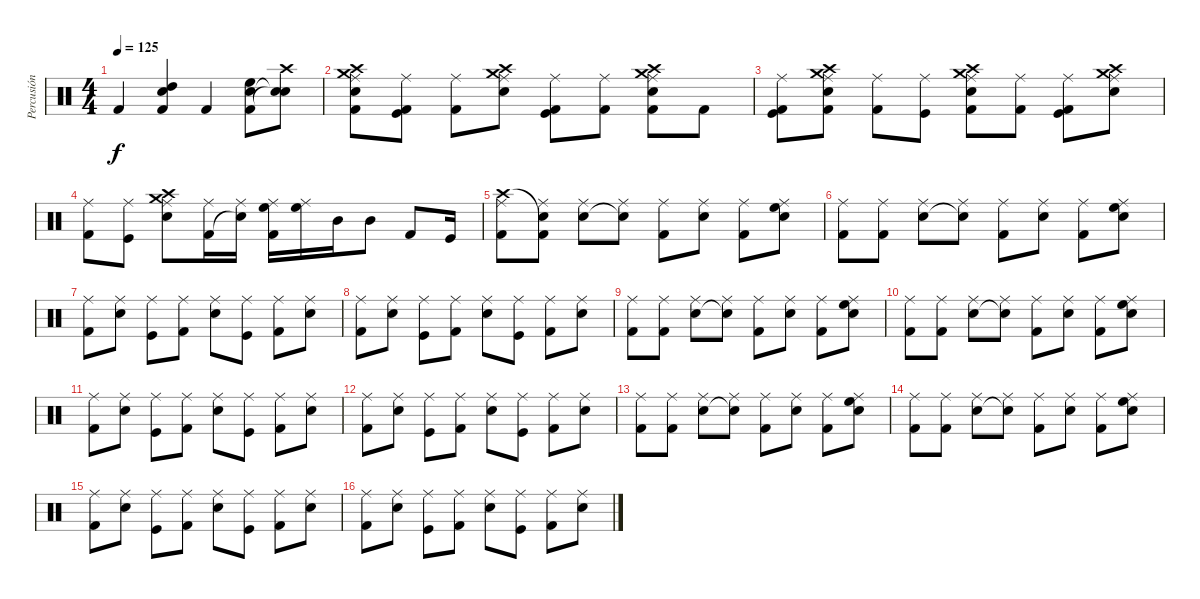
\track ("Percusión" "Percusión") {instrument percussion}
\staff {score}
\articulation defaults
\ts (4 4)
\tempo 125
\clef neutral
\ks c "Kick (hit) 2".4{dy f}
("High Tom (hit)" "Electric Snare (hit)" "Kick (hit) 2").4 "Kick (hit) 2".4 ("High Floor Tom (hit)" "Electric Snare (hit)" "Kick (hit) 2").8 ("Crash high (hit)" "Snare (hit)"{t} "Snare (hit)"{t}).8 |
("Ride (middle)" "Crash medium (hit)" "Snare (hit) 2" "Kick (hit) 2" "Crash high (hit)").8 ("Ride (middle)" "Kick (hit)" "Kick (hit) 2").8 ("Ride (middle)" "Kick (hit) 2").8 ("Ride (middle)" "Crash medium (hit)" "Snare (hit) 2" "Crash high (hit)").8 ("Ride (middle)" "Kick (hit)" "Kick (hit) 2").8 ("Ride (middle)" "Kick (hit) 2").8 ("Ride (middle)" "Crash medium (hit)" "Snare (hit) 2" "Kick (hit) 2" "Crash high (hit)").8 "Kick (hit) 2".8 |
("Ride (middle)" "Kick (hit)" "Kick (hit) 2").8 ("Ride (middle)" "Crash medium (hit)" "Snare (hit) 2" "Kick (hit) 2" "Crash high (hit)").8 ("Ride (middle)" "Kick (hit) 2").8 ("Ride (middle)" "Kick (hit)").8 ("Ride (middle)" "Crash medium (hit)" "Snare (hit) 2" "Kick (hit) 2" "Crash high (hit)").8 ("Ride (middle)" "Kick (hit) 2").8 ("Ride (middle)" "Kick (hit)" "Kick (hit) 2").8 ("Ride (middle)" "Crash medium (hit)" "Snare (hit) 2" "Crash high (hit)").8 |
("Ride (middle)" "Kick (hit) 2").8 ("Ride (middle)" "Kick (hit)").8 ("Ride (middle)" "Crash medium (hit)" "Snare (hit) 2" "Crash high (hit)").8 ("Ride (middle)" "Kick (hit) 2").16 ("Ride (middle)" "Snare (hit)"{t}).16 ("Ride (middle)" "High Floor Tom (hit)" "Kick (hit) 2").16 ("Ride (middle)" "High Floor Tom (hit)").16 "Mid Tom (hit)".16 "Mid Tom (hit)".8 "Kick (hit) 2".8 "Kick (hit)".16 |
("Crash high (hit)" "Ride (middle)" "Kick (hit) 2").8 ("Snare (hit)"{t} "Ride (middle)" "Kick (hit) 2").8 ("Ride (middle)" "Snare (hit) 2").8 ("Ride (middle)" "Snare (hit) 2"{t}).8 ("Ride (middle)" "Kick (hit) 2").8 ("Ride (middle)" "Snare (hit) 2").8 ("Ride (middle)" "Kick (hit) 2").8 ("Ride (middle)" "High Floor Tom (hit)" "Snare (hit) 2").8 |
("Ride (middle)" "Kick (hit) 2").8 ("Ride (middle)" "Kick (hit) 2").8 ("Ride (middle)" "Snare (hit) 2").8 ("Ride (middle)" "Snare (hit) 2"{t}).8 ("Ride (middle)" "Kick (hit) 2").8 ("Ride (middle)" "Snare (hit) 2").8 ("Ride (middle)" "Kick (hit) 2").8 ("Ride (middle)" "High Floor Tom (hit)" "Snare (hit) 2").8 |
("Ride (middle)" "Kick (hit) 2").8 ("Ride (middle)" "Snare (hit) 2").8 ("Ride (middle)" "Kick (hit)").8 ("Ride (middle)" "Kick (hit) 2").8 ("Ride (middle)" "Snare (hit) 2").8 ("Ride (middle)" "Kick (hit)").8 ("Ride (middle)" "Kick (hit) 2").8 ("Ride (middle)" "Snare (hit) 2").8 |
("Ride (middle)" "Kick (hit) 2").8 ("Ride (middle)" "Snare (hit) 2").8 ("Ride (middle)" "Kick (hit)").8 ("Ride (middle)" "Kick (hit) 2").8 ("Ride (middle)" "Snare (hit) 2").8 ("Ride (middle)" "Kick (hit)").8 ("Ride (middle)" "Kick (hit) 2").8 ("Ride (middle)" "Snare (hit) 2").8 |
("Ride (middle)" "Kick (hit) 2").8 ("Ride (middle)" "Kick (hit) 2").8 ("Ride (middle)" "Snare (hit) 2").8 ("Ride (middle)" "Snare (hit) 2"{t}).8 ("Ride (middle)" "Kick (hit) 2").8 ("Ride (middle)" "Snare (hit) 2").8 ("Ride (middle)" "Kick (hit) 2").8 ("Ride (middle)" "High Floor Tom (hit)" "Snare (hit) 2").8 |
("Ride (middle)" "Kick (hit) 2").8 ("Ride (middle)" "Kick (hit) 2").8 ("Ride (middle)" "Snare (hit) 2").8 ("Ride (middle)" "Snare (hit) 2"{t}).8 ("Ride (middle)" "Kick (hit) 2").8 ("Ride (middle)" "Snare (hit) 2").8 ("Ride (middle)" "Kick (hit) 2").8 ("Ride (middle)" "High Floor Tom (hit)" "Snare (hit) 2").8 |
("Ride (middle)" "Kick (hit) 2").8 ("Ride (middle)" "Snare (hit) 2").8 ("Ride (middle)" "Kick (hit)").8 ("Ride (middle)" "Kick (hit) 2").8 ("Ride (middle)" "Snare (hit) 2").8 ("Ride (middle)" "Kick (hit)").8 ("Ride (middle)" "Kick (hit) 2").8 ("Ride (middle)" "Snare (hit) 2").8 |
("Ride (middle)" "Kick (hit) 2").8 ("Ride (middle)" "Snare (hit) 2").8 ("Ride (middle)" "Kick (hit)").8 ("Ride (middle)" "Kick (hit) 2").8 ("Ride (middle)" "Snare (hit) 2").8 ("Ride (middle)" "Kick (hit)").8 ("Ride (middle)" "Kick (hit) 2").8 ("Ride (middle)" "Snare (hit) 2").8 |
("Ride (middle)" "Kick (hit) 2").8 ("Ride (middle)" "Kick (hit) 2").8 ("Ride (middle)" "Snare (hit) 2").8 ("Ride (middle)" "Snare (hit) 2"{t}).8 ("Ride (middle)" "Kick (hit) 2").8 ("Ride (middle)" "Snare (hit) 2").8 ("Ride (middle)" "Kick (hit) 2").8 ("Ride (middle)" "High Floor Tom (hit)" "Snare (hit) 2").8 |
("Ride (middle)" "Kick (hit) 2").8 ("Ride (middle)" "Kick (hit) 2").8 ("Ride (middle)" "Snare (hit) 2").8 ("Ride (middle)" "Snare (hit) 2"{t}).8 ("Ride (middle)" "Kick (hit) 2").8 ("Ride (middle)" "Snare (hit) 2").8 ("Ride (middle)" "Kick (hit) 2").8 ("Ride (middle)" "High Floor Tom (hit)" "Snare (hit) 2").8 |
("Ride (middle)" "Kick (hit) 2").8 ("Ride (middle)" "Snare (hit) 2").8 ("Ride (middle)" "Kick (hit)").8 ("Ride (middle)" "Kick (hit) 2").8 ("Ride (middle)" "Snare (hit) 2").8 ("Ride (middle)" "Kick (hit)").8 ("Ride (middle)" "Kick (hit) 2").8 ("Ride (middle)" "Snare (hit) 2").8 |
("Ride (middle)" "Kick (hit) 2").8 ("Ride (middle)" "Snare (hit) 2").8 ("Ride (middle)" "Kick (hit)").8 ("Ride (middle)" "Kick (hit) 2").8 ("Ride (middle)" "Snare (hit) 2").8 ("Ride (middle)" "Kick (hit)").8 ("Ride (middle)" "Kick (hit) 2").8 ("Ride (middle)" "Snare (hit) 2").8
